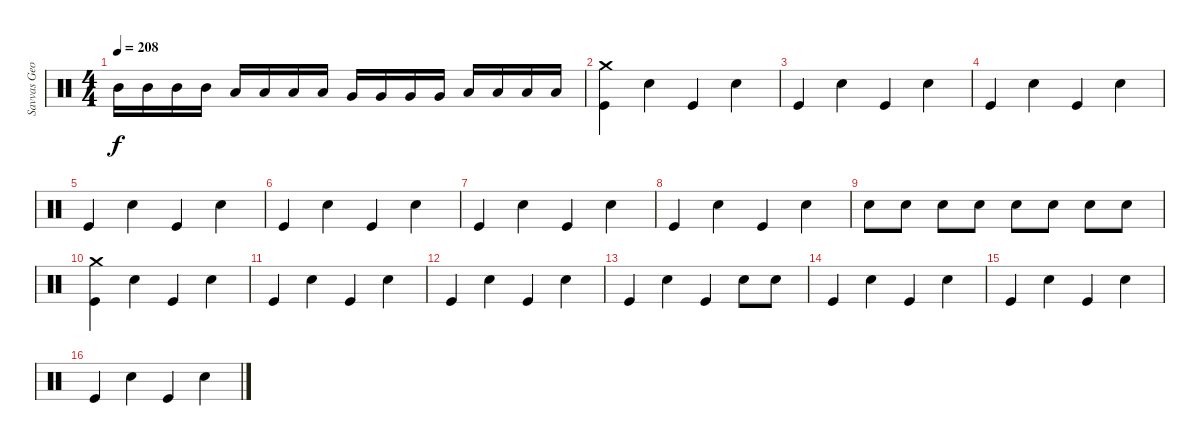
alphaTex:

\track ("Savvas Georgiadis" "Savvas Geo") {instrument percussion}
\staff {score}
\articulation defaults
\ts (4 4)
\tempo 208
\clef neutral
\ks c "Mid Tom (hit)".16{dy f} "Mid Tom (hit)".16 "Mid Tom (hit)".16 "Mid Tom (hit)".16 "Low Tom (hit)".16 "Low Tom (hit)".16 "Low Tom (hit)".16 "Low Tom (hit)".16 "Very Low Tom (hit)".16 "Very Low Tom (hit)".16 "Very Low Tom (hit)".16 "Very Low Tom (hit)".16 "Low Floor Tom (hit)".16 "Low Floor Tom (hit)".16 "Low Floor Tom (hit)".16 "Low Floor Tom (hit)".16
|
("Crash medium (hit)" "Kick (hit)").4 "Snare (hit) 2".4 "Kick (hit)".4 "Snare (hit) 2".4 |
"Kick (hit)".4 "Snare (hit) 2".4 "Kick (hit)".4 "Snare (hit) 2".4 |
"Kick (hit)".4 "Snare (hit) 2".4 "Kick (hit)".4 "Snare (hit) 2".4 |
"Kick (hit)".4 "Snare (hit) 2".4 "Kick (hit)".4 "Snare (hit) 2".4 |
"Kick (hit)".4 "Snare (hit) 2".4 "Kick (hit)".4 "Snare (hit) 2".4 |
"Kick (hit)".4 "Snare (hit) 2".4 "Kick (hit)".4 "Snare (hit) 2".4 |
"Kick (hit)".4 "Snare (hit) 2".4 "Kick (hit)".4 "Snare (hit) 2".4 |
"Snare (hit) 2".8 "Snare (hit) 2".8 "Snare (hit) 2".8 "Snare (hit) 2".8 "Snare (hit) 2".8 "Snare (hit) 2".8 "Snare (hit) 2".8 "Snare (hit) 2".8 |
("Crash medium (hit)" "Kick (hit)").4 "Snare (hit) 2".4 "Kick (hit)".4 "Snare (hit) 2".4 |
"Kick (hit)".4 "Snare (hit) 2".4 "Kick (hit)".4 "Snare (hit) 2".4 |
"Kick (hit)".4 "Snare (hit) 2".4 "Kick (hit)".4 "Snare (hit) 2".4 |
"Kick (hit)".4 "Snare (hit) 2".4 "Kick (hit)".4 "Snare (hit) 2".8 "Snare (hit) 2".8 |
"Kick (hit)".4 "Snare (hit) 2".4 "Kick (hit)".4 "Snare (hit) 2".4 |
"Kick (hit)".4 "Snare (hit) 2".4 "Kick (hit)".4 "Snare (hit) 2".4 |
"Kick (hit)".4 "Snare (hit) 2".4 "Kick (hit)".4 "Snare (hit) 2".4
